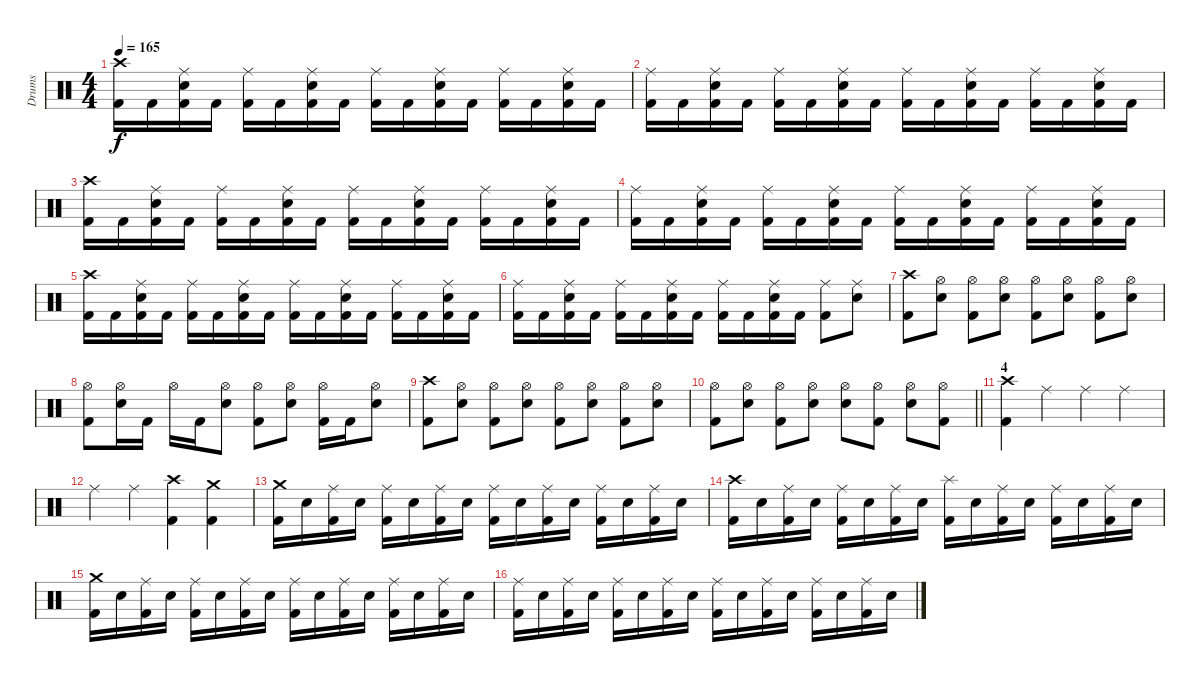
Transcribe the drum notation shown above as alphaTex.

\track ("Drums" "Drums") {instrument percussion}
\staff {score}
\articulation defaults
\ts (4 4)
\tempo 165
\clef neutral
\ks c
("Crash high (hit)" "Kick (hit) 2").16{dy f} "Kick (hit) 2".16 ("Ride (middle)" "Electric Snare (hit)" "Kick (hit) 2").16 "Kick (hit) 2".16 ("Ride (middle)" "Kick (hit) 2").16 "Kick (hit) 2".16 ("Ride (middle)" "Electric Snare (hit)" "Kick (hit) 2").16 "Kick (hit) 2".16 ("Ride (middle)" "Kick (hit) 2").16 "Kick (hit) 2".16 ("Ride (middle)" "Electric Snare (hit)" "Kick (hit) 2").16 "Kick (hit) 2".16 ("Ride (middle)" "Kick (hit) 2").16 "Kick (hit) 2".16 ("Ride (middle)" "Electric Snare (hit)" "Kick (hit) 2").16 "Kick (hit) 2".16 |
("Ride (middle)" "Kick (hit) 2").16 "Kick (hit) 2".16 ("Ride (middle)" "Electric Snare (hit)" "Kick (hit) 2").16 "Kick (hit) 2".16 ("Ride (middle)" "Kick (hit) 2").16 "Kick (hit) 2".16 ("Ride (middle)" "Electric Snare (hit)" "Kick (hit) 2").16 "Kick (hit) 2".16 ("Ride (middle)" "Kick (hit) 2").16 "Kick (hit) 2".16 ("Ride (middle)" "Electric Snare (hit)" "Kick (hit) 2").16 "Kick (hit) 2".16 ("Ride (middle)" "Kick (hit) 2").16 "Kick (hit) 2".16 ("Ride (middle)" "Electric Snare (hit)" "Kick (hit) 2").16 "Kick (hit) 2".16 |
("Crash high (hit)" "Kick (hit) 2").16 "Kick (hit) 2".16 ("Ride (middle)" "Electric Snare (hit)" "Kick (hit) 2").16 "Kick (hit) 2".16 ("Ride (middle)" "Kick (hit) 2").16 "Kick (hit) 2".16 ("Ride (middle)" "Electric Snare (hit)" "Kick (hit) 2").16 "Kick (hit) 2".16 ("Ride (middle)" "Kick (hit) 2").16 "Kick (hit) 2".16 ("Ride (middle)" "Electric Snare (hit)" "Kick (hit) 2").16 "Kick (hit) 2".16 ("Ride (middle)" "Kick (hit) 2").16 "Kick (hit) 2".16 ("Ride (middle)" "Electric Snare (hit)" "Kick (hit) 2").16 "Kick (hit) 2".16 |
("Ride (middle)" "Kick (hit) 2").16 "Kick (hit) 2".16 ("Ride (middle)" "Electric Snare (hit)" "Kick (hit) 2").16 "Kick (hit) 2".16 ("Ride (middle)" "Kick (hit) 2").16 "Kick (hit) 2".16 ("Ride (middle)" "Electric Snare (hit)" "Kick (hit) 2").16 "Kick (hit) 2".16 ("Ride (middle)" "Kick (hit) 2").16 "Kick (hit) 2".16 ("Ride (middle)" "Electric Snare (hit)" "Kick (hit) 2").16 "Kick (hit) 2".16 ("Ride (middle)" "Kick (hit) 2").16 "Kick (hit) 2".16 ("Ride (middle)" "Electric Snare (hit)" "Kick (hit) 2").16 "Kick (hit) 2".16 |
("Crash high (hit)" "Kick (hit) 2").16 "Kick (hit) 2".16 ("Ride (middle)" "Electric Snare (hit)" "Kick (hit) 2").16 "Kick (hit) 2".16 ("Ride (middle)" "Kick (hit) 2").16 "Kick (hit) 2".16 ("Ride (middle)" "Electric Snare (hit)" "Kick (hit) 2").16 "Kick (hit) 2".16 ("Ride (middle)" "Kick (hit) 2").16 "Kick (hit) 2".16 ("Ride (middle)" "Electric Snare (hit)" "Kick (hit) 2").16 "Kick (hit) 2".16 ("Ride (middle)" "Kick (hit) 2").16 "Kick (hit) 2".16 ("Ride (middle)" "Electric Snare (hit)" "Kick (hit) 2").16 "Kick (hit) 2".16 |
("Ride (middle)" "Kick (hit) 2").16 "Kick (hit) 2".16 ("Ride (middle)" "Electric Snare (hit)" "Kick (hit) 2").16 "Kick (hit) 2".16 ("Ride (middle)" "Kick (hit) 2").16 "Kick (hit) 2".16 ("Ride (middle)" "Electric Snare (hit)" "Kick (hit) 2").16 "Kick (hit) 2".16 ("Ride (middle)" "Kick (hit) 2").16 "Kick (hit) 2".16 ("Ride (middle)" "Electric Snare (hit)" "Kick (hit) 2").16 "Kick (hit) 2".16 ("Ride (middle)" "Kick (hit) 2").8 ("Ride (middle)" "Electric Snare (hit)").8 |
("Crash high (hit)" "Kick (hit) 2").8 ("Hi-Hat (open)" "Electric Snare (hit)").8 ("Hi-Hat (open)" "Kick (hit) 2").8 ("Hi-Hat (open)" "Electric Snare (hit)").8 ("Hi-Hat (open)" "Kick (hit) 2").8 ("Hi-Hat (open)" "Electric Snare (hit)").8 ("Hi-Hat (open)" "Kick (hit) 2").8 ("Hi-Hat (open)" "Electric Snare (hit)").8 |
("Hi-Hat (open)" "Kick (hit) 2").8 ("Hi-Hat (open)" "Electric Snare (hit)").16 "Kick (hit) 2".16 "Hi-Hat (open)".16 "Kick (hit) 2".16 ("Hi-Hat (open)" "Electric Snare (hit)").8 ("Hi-Hat (open)" "Kick (hit) 2").8 ("Hi-Hat (open)" "Electric Snare (hit)").8 ("Hi-Hat (open)" "Kick (hit) 2").16 "Kick (hit) 2".16 ("Hi-Hat (open)" "Electric Snare (hit)").8 |
("Crash high (hit)" "Kick (hit) 2").8 ("Hi-Hat (open)" "Electric Snare (hit)").8 ("Hi-Hat (open)" "Kick (hit) 2").8 ("Hi-Hat (open)" "Electric Snare (hit)").8 ("Hi-Hat (open)" "Kick (hit) 2").8 ("Hi-Hat (open)" "Electric Snare (hit)").8 ("Hi-Hat (open)" "Kick (hit) 2").8 ("Hi-Hat (open)" "Electric Snare (hit)").8 |
\barLineRight lightlight
("Hi-Hat (open)" "Kick (hit) 2").8 ("Hi-Hat (open)" "Electric Snare (hit)").8 ("Hi-Hat (open)" "Kick (hit) 2").8 ("Hi-Hat (open)" "Electric Snare (hit)").8 ("Hi-Hat (open)" "Electric Snare (hit)").8 ("Hi-Hat (open)" "Kick (hit) 2").8 ("Hi-Hat (open)" "Electric Snare (hit)").8 ("Hi-Hat (open)" "Kick (hit) 2").8 |
\section ("" "4")
("Crash high (hit)" "Kick (hit) 2").4 "Ride (middle)".4 "Ride (middle)".4 "Ride (middle)".4 |
"Ride (middle)".4 "Ride (middle)".4 ("Crash high (hit)" "Kick (hit) 2").4 ("Crash medium (hit)" "Kick (hit) 2").4 |
("Crash medium (hit)" "Kick (hit) 2").16 "Electric Snare (hit)".16 ("Ride (middle)" "Kick (hit) 2").16 "Electric Snare (hit)".16 ("Ride (middle)" "Kick (hit) 2").16 "Electric Snare (hit)".16 ("Ride (middle)" "Kick (hit) 2").16 "Electric Snare (hit)".16 ("Ride (middle)" "Kick (hit) 2").16 "Electric Snare (hit)".16 ("Ride (middle)" "Kick (hit) 2").16 "Electric Snare (hit)".16 ("Ride (middle)" "Kick (hit) 2").16 "Electric Snare (hit)".16 ("Ride (middle)" "Kick (hit) 2").16 "Electric Snare (hit)".16 |
("Crash high (hit)" "Kick (hit) 2").16 "Electric Snare (hit)".16 ("Ride (middle)" "Kick (hit) 2").16 "Electric Snare (hit)".16 ("Ride (middle)" "Kick (hit) 2").16 "Electric Snare (hit)".16 ("Ride (middle)" "Kick (hit) 2").16 "Electric Snare (hit)".16 ("Splash (hit)" "Kick (hit) 2").16 "Electric Snare (hit)".16 ("Ride (middle)" "Kick (hit) 2").16 "Electric Snare (hit)".16 ("Ride (middle)" "Kick (hit) 2").16 "Electric Snare (hit)".16 ("Ride (middle)" "Kick (hit) 2").16 "Electric Snare (hit)".16 |
("Crash medium (hit)" "Kick (hit) 2").16 "Electric Snare (hit)".16 ("Ride (middle)" "Kick (hit) 2").16 "Electric Snare (hit)".16 ("Ride (middle)" "Kick (hit) 2").16 "Electric Snare (hit)".16 ("Ride (middle)" "Kick (hit) 2").16 "Electric Snare (hit)".16 ("Ride (middle)" "Kick (hit) 2").16 "Electric Snare (hit)".16 ("Ride (middle)" "Kick (hit) 2").16 "Electric Snare (hit)".16 ("Ride (middle)" "Kick (hit) 2").16 "Electric Snare (hit)".16 ("Ride (middle)" "Kick (hit) 2").16 "Electric Snare (hit)".16 |
("Ride (middle)" "Kick (hit) 2").16 "Electric Snare (hit)".16 ("Ride (middle)" "Kick (hit) 2").16 "Electric Snare (hit)".16 ("Ride (middle)" "Kick (hit) 2").16 "Electric Snare (hit)".16 ("Ride (middle)" "Kick (hit) 2").16 "Electric Snare (hit)".16 ("Ride (middle)" "Kick (hit) 2").16 "Electric Snare (hit)".16 ("Ride (middle)" "Kick (hit) 2").16 "Electric Snare (hit)".16 ("Ride (middle)" "Kick (hit) 2").16 "Electric Snare (hit)".16 ("Ride (middle)" "Kick (hit) 2").16 "Electric Snare (hit)".16
